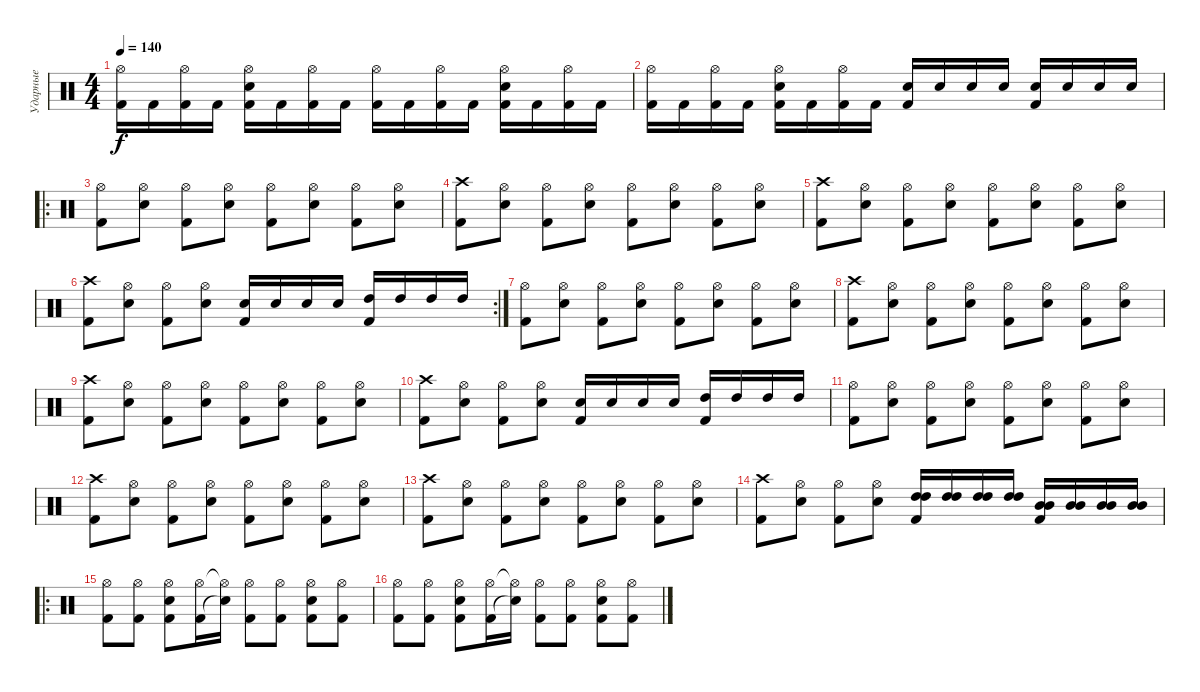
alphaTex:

\track ("Ударные" "Ударные") {instrument percussion}
\staff {score}
\articulation defaults
\ts (4 4)
\tempo 140
\clef neutral
\ks c
("Hi-Hat (open)" "Kick (hit) 2").16{dy f} "Kick (hit) 2".16 ("Hi-Hat (open)" "Kick (hit) 2").16 "Kick (hit) 2".16 ("Hi-Hat (open)" "Electric Snare (hit)" "Kick (hit) 2").16 "Kick (hit) 2".16 ("Hi-Hat (open)" "Kick (hit) 2").16 "Kick (hit) 2".16 ("Hi-Hat (open)" "Kick (hit) 2").16 "Kick (hit) 2".16 ("Hi-Hat (open)" "Kick (hit) 2").16 "Kick (hit) 2".16 ("Hi-Hat (open)" "Electric Snare (hit)" "Kick (hit) 2").16 "Kick (hit) 2".16 ("Hi-Hat (open)" "Kick (hit) 2").16 "Kick (hit) 2".16 |
("Hi-Hat (open)" "Kick (hit) 2").16 "Kick (hit) 2".16 ("Hi-Hat (open)" "Kick (hit) 2").16 "Kick (hit) 2".16 ("Hi-Hat (open)" "Electric Snare (hit)" "Kick (hit) 2").16 "Kick (hit) 2".16 ("Hi-Hat (open)" "Kick (hit) 2").16 "Kick (hit) 2".16 ("Electric Snare (hit)" "Kick (hit) 2").16 "Electric Snare (hit)".16 "Electric Snare (hit)".16 "Electric Snare (hit)".16 ("Electric Snare (hit)" "Kick (hit) 2").16 "Electric Snare (hit)".16 "Electric Snare (hit)".16 "Electric Snare (hit)".16 |
\ro
("Hi-Hat (open)" "Kick (hit) 2").8 ("Hi-Hat (open)" "Electric Snare (hit)").8 ("Hi-Hat (open)" "Kick (hit) 2").8 ("Hi-Hat (open)" "Electric Snare (hit)").8 ("Hi-Hat (open)" "Kick (hit) 2").8 ("Hi-Hat (open)" "Electric Snare (hit)").8 ("Hi-Hat (open)" "Kick (hit) 2").8 ("Hi-Hat (open)" "Electric Snare (hit)").8 |
("Crash high (hit)" "Kick (hit) 2").8 ("Hi-Hat (open)" "Electric Snare (hit)").8 ("Hi-Hat (open)" "Kick (hit) 2").8 ("Hi-Hat (open)" "Electric Snare (hit)").8 ("Hi-Hat (open)" "Kick (hit) 2").8 ("Hi-Hat (open)" "Electric Snare (hit)").8 ("Hi-Hat (open)" "Kick (hit) 2").8 ("Hi-Hat (open)" "Electric Snare (hit)").8 |
("Crash high (hit)" "Kick (hit) 2").8 ("Hi-Hat (open)" "Electric Snare (hit)").8 ("Hi-Hat (open)" "Kick (hit) 2").8 ("Hi-Hat (open)" "Electric Snare (hit)").8 ("Hi-Hat (open)" "Kick (hit) 2").8 ("Hi-Hat (open)" "Electric Snare (hit)").8 ("Hi-Hat (open)" "Kick (hit) 2").8 ("Hi-Hat (open)" "Electric Snare (hit)").8 |
\rc 2
("Crash high (hit)" "Kick (hit) 2").8 ("Hi-Hat (open)" "Electric Snare (hit)").8 ("Hi-Hat (open)" "Kick (hit) 2").8 ("Hi-Hat (open)" "Electric Snare (hit)").8 ("Electric Snare (hit)" "Kick (hit) 2").16 "Electric Snare (hit)".16 "Electric Snare (hit)".16 "Electric Snare (hit)".16 ("High Tom (hit)" "Kick (hit) 2").16 "High Tom (hit)".16 "High Tom (hit)".16 "High Tom (hit)".16 |
("Hi-Hat (open)" "Kick (hit) 2").8 ("Hi-Hat (open)" "Electric Snare (hit)").8 ("Hi-Hat (open)" "Kick (hit) 2").8 ("Hi-Hat (open)" "Electric Snare (hit)").8 ("Hi-Hat (open)" "Kick (hit) 2").8 ("Hi-Hat (open)" "Electric Snare (hit)").8 ("Hi-Hat (open)" "Kick (hit) 2").8 ("Hi-Hat (open)" "Electric Snare (hit)").8 |
("Crash high (hit)" "Kick (hit) 2").8 ("Hi-Hat (open)" "Electric Snare (hit)").8 ("Hi-Hat (open)" "Kick (hit) 2").8 ("Hi-Hat (open)" "Electric Snare (hit)").8 ("Hi-Hat (open)" "Kick (hit) 2").8 ("Hi-Hat (open)" "Electric Snare (hit)").8 ("Hi-Hat (open)" "Kick (hit) 2").8 ("Hi-Hat (open)" "Electric Snare (hit)").8 |
("Crash high (hit)" "Kick (hit) 2").8 ("Hi-Hat (open)" "Electric Snare (hit)").8 ("Hi-Hat (open)" "Kick (hit) 2").8 ("Hi-Hat (open)" "Electric Snare (hit)").8 ("Hi-Hat (open)" "Kick (hit) 2").8 ("Hi-Hat (open)" "Electric Snare (hit)").8 ("Hi-Hat (open)" "Kick (hit) 2").8 ("Hi-Hat (open)" "Electric Snare (hit)").8 |
("Crash high (hit)" "Kick (hit) 2").8 ("Hi-Hat (open)" "Electric Snare (hit)").8 ("Hi-Hat (open)" "Kick (hit) 2").8 ("Hi-Hat (open)" "Electric Snare (hit)").8 ("Electric Snare (hit)" "Kick (hit) 2").16 "Electric Snare (hit)".16 "Electric Snare (hit)".16 "Electric Snare (hit)".16 ("High Tom (hit)" "Kick (hit) 2").16 "High Tom (hit)".16 "High Tom (hit)".16 "High Tom (hit)".16 |
("Hi-Hat (open)" "Kick (hit) 2").8 ("Hi-Hat (open)" "Electric Snare (hit)").8 ("Hi-Hat (open)" "Kick (hit) 2").8 ("Hi-Hat (open)" "Electric Snare (hit)").8 ("Hi-Hat (open)" "Kick (hit) 2").8 ("Hi-Hat (open)" "Electric Snare (hit)").8 ("Hi-Hat (open)" "Kick (hit) 2").8 ("Hi-Hat (open)" "Electric Snare (hit)").8 |
("Crash high (hit)" "Kick (hit) 2").8 ("Hi-Hat (open)" "Electric Snare (hit)").8 ("Hi-Hat (open)" "Kick (hit) 2").8 ("Hi-Hat (open)" "Electric Snare (hit)").8 ("Hi-Hat (open)" "Kick (hit) 2").8 ("Hi-Hat (open)" "Electric Snare (hit)").8 ("Hi-Hat (open)" "Kick (hit) 2").8 ("Hi-Hat (open)" "Electric Snare (hit)").8 |
("Crash high (hit)" "Kick (hit) 2").8 ("Hi-Hat (open)" "Electric Snare (hit)").8 ("Hi-Hat (open)" "Kick (hit) 2").8 ("Hi-Hat (open)" "Electric Snare (hit)").8 ("Hi-Hat (open)" "Kick (hit) 2").8 ("Hi-Hat (open)" "Electric Snare (hit)").8 ("Hi-Hat (open)" "Kick (hit) 2").8 ("Hi-Hat (open)" "Electric Snare (hit)").8 |
("Crash high (hit)" "Kick (hit) 2").8 ("Hi-Hat (open)" "Electric Snare (hit)").8 ("Hi-Hat (open)" "Kick (hit) 2").8 ("Hi-Hat (open)" "Electric Snare (hit)").8 ("High Tom (hit)" "High Tom (hit)" "Kick (hit) 2").16 ("High Tom (hit)" "High Tom (hit)").16 ("High Tom (hit)" "High Tom (hit)").16 ("High Tom (hit)" "High Tom (hit)").16 ("Mid Tom (hit)" "Mid Tom (hit)" "Kick (hit) 2").16 ("Mid Tom (hit)" "Mid Tom (hit)").16 ("Mid Tom (hit)" "Mid Tom (hit)").16 ("Mid Tom (hit)" "Mid Tom (hit)").16 |
\ro
("Hi-Hat (open)" "Kick (hit) 2").8 ("Hi-Hat (open)" "Kick (hit) 2").8 ("Hi-Hat (open)" "Electric Snare (hit)" "Kick (hit) 2").8 ("Hi-Hat (open)" "Kick (hit) 2").16 ("Hi-Hat (open)"{t} "Electric Snare (hit)"{t}).16 ("Hi-Hat (open)" "Kick (hit) 2").8 ("Hi-Hat (open)" "Kick (hit) 2").8 ("Hi-Hat (open)" "Electric Snare (hit)" "Kick (hit) 2").8 ("Hi-Hat (open)" "Kick (hit) 2").8 |
("Hi-Hat (open)" "Kick (hit) 2").8 ("Hi-Hat (open)" "Kick (hit) 2").8 ("Hi-Hat (open)" "Electric Snare (hit)" "Kick (hit) 2").8 ("Hi-Hat (open)" "Kick (hit) 2").16 ("Hi-Hat (open)"{t} "Electric Snare (hit)"{t}).16 ("Hi-Hat (open)" "Kick (hit) 2").8 ("Hi-Hat (open)" "Kick (hit) 2").8 ("Hi-Hat (open)" "Electric Snare (hit)" "Kick (hit) 2").8 ("Hi-Hat (open)" "Kick (hit) 2").8
